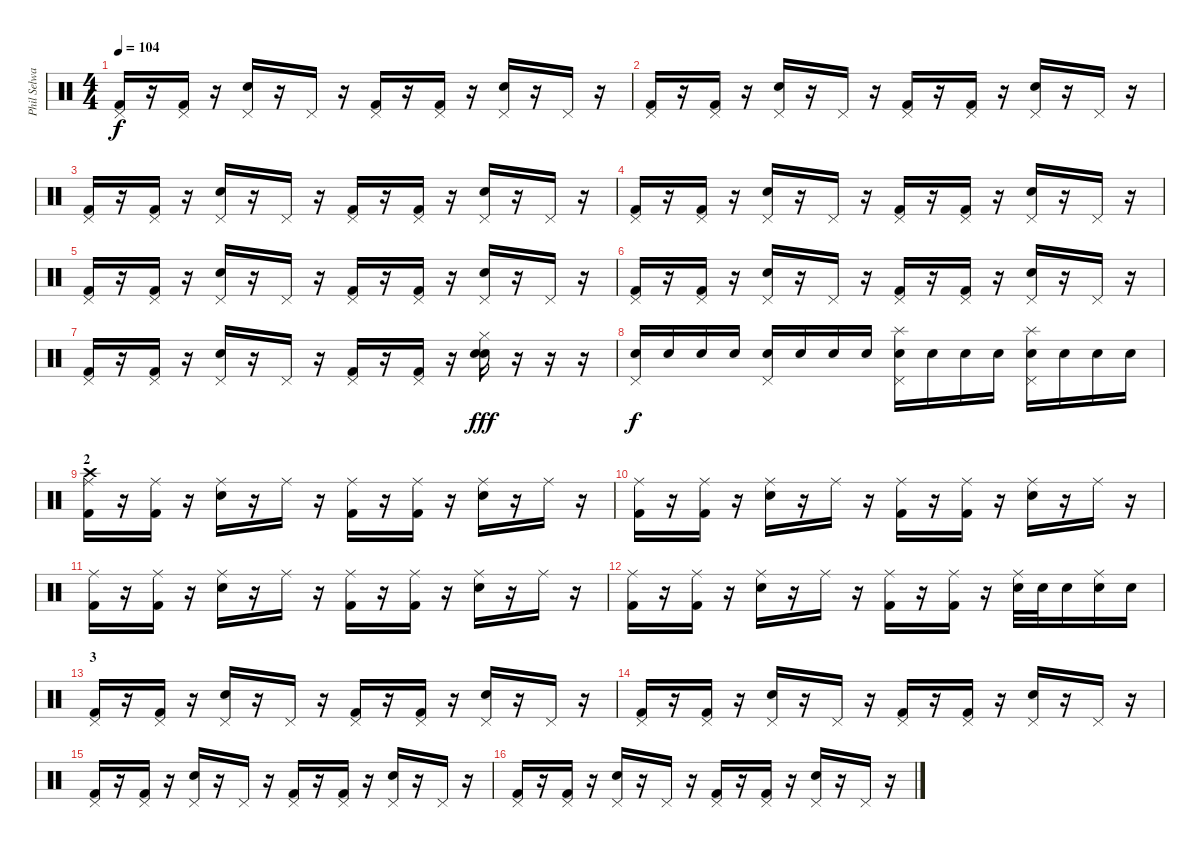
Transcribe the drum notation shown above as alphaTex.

\track ("Phil Selway" "Phil Selwa") {instrument percussion}
\staff {score}
\articulation defaults
\ts (4 4)
\tempo 104
\clef neutral
\ks c
("Pedal Hi-Hat (hit)" "Kick (hit) 2").16{dy f} r.16 ("Pedal Hi-Hat (hit)" "Kick (hit) 2").16 r.16 ("Pedal Hi-Hat (hit)" "Electric Snare (hit)").16 r.16 "Pedal Hi-Hat (hit)".16 r.16 ("Pedal Hi-Hat (hit)" "Kick (hit) 2").16 r.16 ("Pedal Hi-Hat (hit)" "Kick (hit) 2").16 r.16 ("Pedal Hi-Hat (hit)" "Electric Snare (hit)").16 r.16 "Pedal Hi-Hat (hit)".16 r.16 |
("Pedal Hi-Hat (hit)" "Kick (hit) 2").16 r.16 ("Pedal Hi-Hat (hit)" "Kick (hit) 2").16 r.16 ("Pedal Hi-Hat (hit)" "Electric Snare (hit)").16 r.16 "Pedal Hi-Hat (hit)".16 r.16 ("Pedal Hi-Hat (hit)" "Kick (hit) 2").16 r.16 ("Pedal Hi-Hat (hit)" "Kick (hit) 2").16 r.16 ("Pedal Hi-Hat (hit)" "Electric Snare (hit)").16 r.16 "Pedal Hi-Hat (hit)".16 r.16 |
("Pedal Hi-Hat (hit)" "Kick (hit) 2").16 r.16 ("Pedal Hi-Hat (hit)" "Kick (hit) 2").16 r.16 ("Pedal Hi-Hat (hit)" "Electric Snare (hit)").16 r.16 "Pedal Hi-Hat (hit)".16 r.16 ("Pedal Hi-Hat (hit)" "Kick (hit) 2").16 r.16 ("Pedal Hi-Hat (hit)" "Kick (hit) 2").16 r.16 ("Pedal Hi-Hat (hit)" "Electric Snare (hit)").16 r.16 "Pedal Hi-Hat (hit)".16 r.16 |
("Pedal Hi-Hat (hit)" "Kick (hit) 2").16 r.16 ("Pedal Hi-Hat (hit)" "Kick (hit) 2").16 r.16 ("Pedal Hi-Hat (hit)" "Electric Snare (hit)").16 r.16 "Pedal Hi-Hat (hit)".16 r.16 ("Pedal Hi-Hat (hit)" "Kick (hit) 2").16 r.16 ("Pedal Hi-Hat (hit)" "Kick (hit) 2").16 r.16 ("Pedal Hi-Hat (hit)" "Electric Snare (hit)").16 r.16 "Pedal Hi-Hat (hit)".16 r.16 |
("Pedal Hi-Hat (hit)" "Kick (hit) 2").16 r.16 ("Pedal Hi-Hat (hit)" "Kick (hit) 2").16 r.16 ("Pedal Hi-Hat (hit)" "Electric Snare (hit)").16 r.16 "Pedal Hi-Hat (hit)".16 r.16 ("Pedal Hi-Hat (hit)" "Kick (hit) 2").16 r.16 ("Pedal Hi-Hat (hit)" "Kick (hit) 2").16 r.16 ("Pedal Hi-Hat (hit)" "Electric Snare (hit)").16 r.16 "Pedal Hi-Hat (hit)".16 r.16 |
("Pedal Hi-Hat (hit)" "Kick (hit) 2").16 r.16 ("Pedal Hi-Hat (hit)" "Kick (hit) 2").16 r.16 ("Pedal Hi-Hat (hit)" "Electric Snare (hit)").16 r.16 "Pedal Hi-Hat (hit)".16 r.16 ("Pedal Hi-Hat (hit)" "Kick (hit) 2").16 r.16 ("Pedal Hi-Hat (hit)" "Kick (hit) 2").16 r.16 ("Pedal Hi-Hat (hit)" "Electric Snare (hit)").16 r.16 "Pedal Hi-Hat (hit)".16 r.16 |
("Pedal Hi-Hat (hit)" "Kick (hit) 2").16 r.16 ("Pedal Hi-Hat (hit)" "Kick (hit) 2").16 r.16 ("Pedal Hi-Hat (hit)" "Electric Snare (hit)").16 r.16 "Pedal Hi-Hat (hit)".16 r.16 ("Pedal Hi-Hat (hit)" "Kick (hit) 2").16 r.16 ("Pedal Hi-Hat (hit)" "Kick (hit) 2").16 r.16 ("Hi-Hat (closed)" "Snare (hit) 2" "Electric Snare (hit)").16{dy fff} r.16 r.16 r.16 |
("Pedal Hi-Hat (hit)" "Electric Snare (hit)").16{dy f} "Electric Snare (hit)".16 "Electric Snare (hit)".16 "Electric Snare (hit)".16 ("Pedal Hi-Hat (hit)" "Electric Snare (hit)").16 "Electric Snare (hit)".16 "Electric Snare (hit)".16 "Electric Snare (hit)".16 ("Pedal Hi-Hat (hit)" "Splash (hit)" "Electric Snare (hit)").16 "Electric Snare (hit)".16 "Electric Snare (hit)".16 "Electric Snare (hit)".16 ("Pedal Hi-Hat (hit)" "Splash (hit)" "Electric Snare (hit)").16 "Electric Snare (hit)".16 "Electric Snare (hit)".16 "Electric Snare (hit)".16 |
\section ("" "2")
("Ride (middle)" "Crash high (hit)" "Kick (hit) 2").16 r.16 ("Ride (middle)" "Kick (hit) 2").16 r.16 ("Ride (middle)" "Electric Snare (hit)").16 r.16 "Ride (middle)".16 r.16 ("Ride (middle)" "Kick (hit) 2").16 r.16 ("Ride (middle)" "Kick (hit) 2").16 r.16 ("Ride (middle)" "Electric Snare (hit)").16 r.16 "Ride (middle)".16 r.16 |
("Ride (middle)" "Kick (hit) 2").16 r.16 ("Ride (middle)" "Kick (hit) 2").16 r.16 ("Ride (middle)" "Electric Snare (hit)").16 r.16 "Ride (middle)".16 r.16 ("Ride (middle)" "Kick (hit) 2").16 r.16 ("Ride (middle)" "Kick (hit) 2").16 r.16 ("Ride (middle)" "Electric Snare (hit)").16 r.16 "Ride (middle)".16 r.16 |
("Ride (middle)" "Kick (hit) 2").16 r.16 ("Ride (middle)" "Kick (hit) 2").16 r.16 ("Ride (middle)" "Electric Snare (hit)").16 r.16 "Ride (middle)".16 r.16 ("Ride (middle)" "Kick (hit) 2").16 r.16 ("Ride (middle)" "Kick (hit) 2").16 r.16 ("Ride (middle)" "Electric Snare (hit)").16 r.16 "Ride (middle)".16 r.16 |
("Ride (middle)" "Kick (hit) 2").16 r.16 ("Ride (middle)" "Kick (hit) 2").16 r.16 ("Ride (middle)" "Electric Snare (hit)").16 r.16 "Ride (middle)".16 r.16 ("Ride (middle)" "Kick (hit) 2").16 r.16 ("Ride (middle)" "Kick (hit) 2").16 r.16 ("Ride (middle)" "Electric Snare (hit)").32 "Electric Snare (hit)".32 "Electric Snare (hit)".16 ("Ride (middle)" "Electric Snare (hit)").16 "Snare (hit) 2".16 |
\section ("" "3")
("Pedal Hi-Hat (hit)" "Kick (hit) 2").16 r.16 ("Pedal Hi-Hat (hit)" "Kick (hit) 2").16 r.16 ("Pedal Hi-Hat (hit)" "Electric Snare (hit)").16 r.16 "Pedal Hi-Hat (hit)".16 r.16 ("Pedal Hi-Hat (hit)" "Kick (hit) 2").16 r.16 ("Pedal Hi-Hat (hit)" "Kick (hit) 2").16 r.16 ("Pedal Hi-Hat (hit)" "Electric Snare (hit)").16 r.16 "Pedal Hi-Hat (hit)".16 r.16 |
("Pedal Hi-Hat (hit)" "Kick (hit) 2").16 r.16 ("Pedal Hi-Hat (hit)" "Kick (hit) 2").16 r.16 ("Pedal Hi-Hat (hit)" "Electric Snare (hit)").16 r.16 "Pedal Hi-Hat (hit)".16 r.16 ("Pedal Hi-Hat (hit)" "Kick (hit) 2").16 r.16 ("Pedal Hi-Hat (hit)" "Kick (hit) 2").16 r.16 ("Pedal Hi-Hat (hit)" "Electric Snare (hit)").16 r.16 "Pedal Hi-Hat (hit)".16 r.16 |
("Pedal Hi-Hat (hit)" "Kick (hit) 2").16 r.16 ("Pedal Hi-Hat (hit)" "Kick (hit) 2").16 r.16 ("Pedal Hi-Hat (hit)" "Electric Snare (hit)").16 r.16 "Pedal Hi-Hat (hit)".16 r.16 ("Pedal Hi-Hat (hit)" "Kick (hit) 2").16 r.16 ("Pedal Hi-Hat (hit)" "Kick (hit) 2").16 r.16 ("Pedal Hi-Hat (hit)" "Electric Snare (hit)").16 r.16 "Pedal Hi-Hat (hit)".16 r.16 |
("Pedal Hi-Hat (hit)" "Kick (hit) 2").16 r.16 ("Pedal Hi-Hat (hit)" "Kick (hit) 2").16 r.16 ("Pedal Hi-Hat (hit)" "Electric Snare (hit)").16 r.16 "Pedal Hi-Hat (hit)".16 r.16 ("Pedal Hi-Hat (hit)" "Kick (hit) 2").16 r.16 ("Pedal Hi-Hat (hit)" "Kick (hit) 2").16 r.16 ("Pedal Hi-Hat (hit)" "Electric Snare (hit)").16 r.16 "Pedal Hi-Hat (hit)".16 r.16
